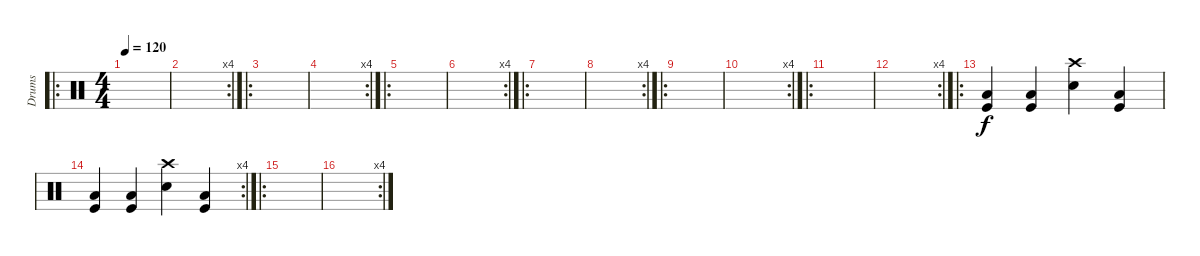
\track ("Drums" "Drums") {instrument percussion}
\staff {score}
\articulation defaults
\ro
\ts (4 4)
\tempo 120
\clef neutral
\ks c
|
\rc 4
|
\ro
|
\rc 4
|
\ro
|
\rc 4
|
\ro
|
\rc 4
|
\ro
|
\rc 4
|
\ro
|
\rc 4
|
\ro
("Low Floor Tom (hit)" "Kick (hit)").4 ("Low Floor Tom (hit)" "Kick (hit)").4 ("Crash high (hit)" "Snare (hit) 2").4 ("Low Floor Tom (hit)" "Kick (hit)").4 |
\rc 4
("Low Floor Tom (hit)" "Kick (hit)").4 ("Low Floor Tom (hit)" "Kick (hit)").4 ("Crash high (hit)" "Snare (hit) 2").4 ("Low Floor Tom (hit)" "Kick (hit)").4 |
\ro
|
\rc 4
